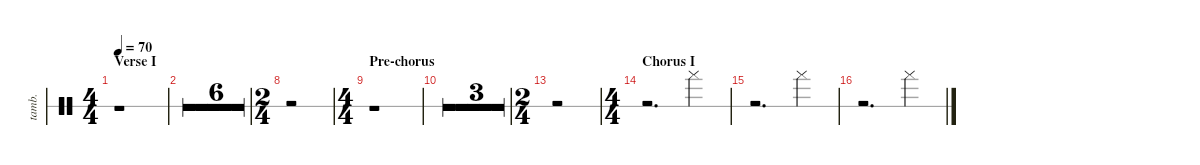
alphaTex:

\defaultSystemsLayout 4
\hideDynamics
\bracketExtendMode nobrackets
\otherSystemsTrackNameOrientation horizontal
\track ("Tambourine" "tamb.") {defaultSystemsLayout 4 multiBarRest instrument percussion}
\staff {score 1}
\articulation defaults
\ts (4 4)
\section ("" "Verse I")
\tempo 70
\clef neutral
\ks c
r.1{dy mf} |
r.1 |
r.1 |
r.1 |
r.1 |
r.1 |
r.1 |
\ts (2 4)
\beaming (8 2 2)
r.2 |
\ts (4 4)
\beaming (8 2 2 2 2)
\section ("" "Pre-chorus")
r.1 |
r.1 |
r.1 |
r.1 |
\ts (2 4)
\beaming (8 2 2)
r.2 |
\ts (4 4)
\beaming (8 2 2 2 2)
\section ("" "Chorus I")
r.2{d} "Tambourine (hand)".4{dy ff} |
r.2{d} "Tambourine (hand)".4 |
r.2{d} "Tambourine (hand)".4
